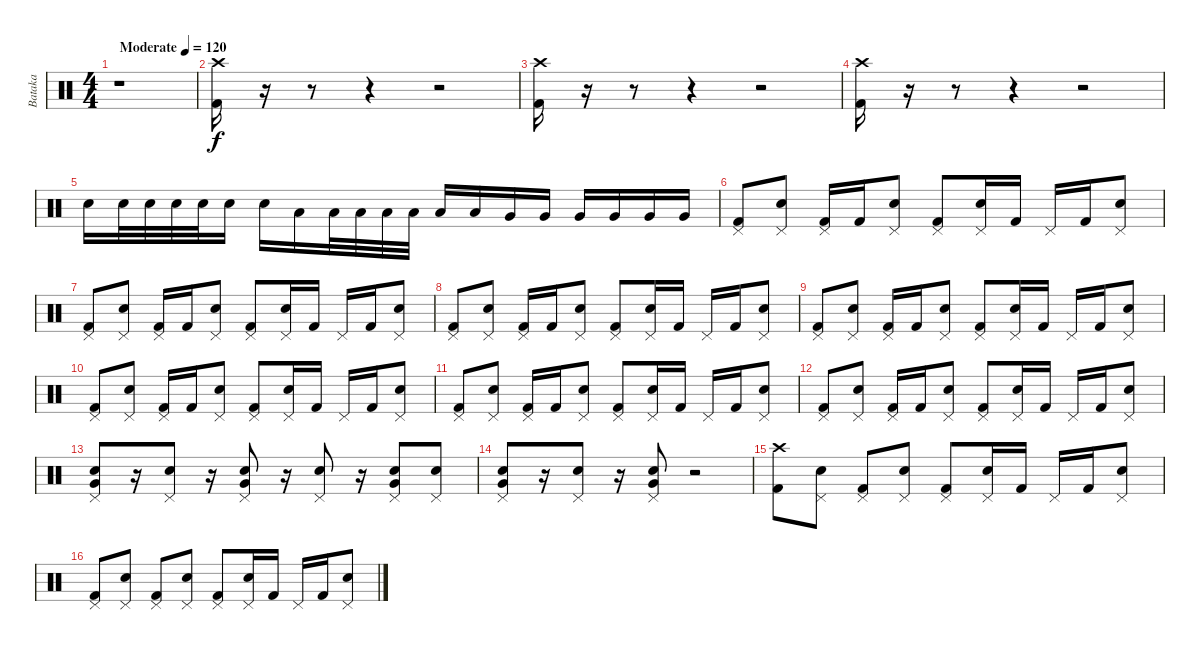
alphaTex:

\track ("Bataka" "Bataka") {instrument percussion}
\staff {score}
\articulation defaults
\ts (4 4)
\tempo (120 "Moderate")
\clef neutral
\ks c
r.1{dy f} |
("Crash high (hit)" "Kick (hit) 2").16 r.16 r.8 r.4 r.2 |
("Crash high (hit)" "Kick (hit) 2").16 r.16 r.8 r.4 r.2 |
("Crash high (hit)" "Kick (hit) 2").16 r.16 r.8 r.4 r.2 |
"Snare (hit) 2".16 "Snare (hit) 2".32 "Snare (hit) 2".32 "Snare (hit) 2".32 "Snare (hit) 2".32 "Snare (hit) 2".16 "Snare (hit) 2".16 "Low Tom (hit)".16 "Low Tom (hit)".32 "Low Tom (hit)".32 "Low Tom (hit)".32 "Low Tom (hit)".32 "Low Tom (hit)".16 "Low Tom (hit)".16 "Very Low Tom (hit)".16 "Very Low Tom (hit)".16 "Very Low Tom (hit)".16 "Very Low Tom (hit)".16 "Very Low Tom (hit)".16 "Very Low Tom (hit)".16 |
("Pedal Hi-Hat (hit)" "Kick (hit) 2").8 ("Pedal Hi-Hat (hit)" "Snare (hit) 2").8 ("Pedal Hi-Hat (hit)" "Kick (hit) 2").16 "Kick (hit) 2".16 ("Pedal Hi-Hat (hit)" "Snare (hit) 2").8 ("Pedal Hi-Hat (hit)" "Kick (hit) 2").8 ("Pedal Hi-Hat (hit)" "Snare (hit) 2").16 "Kick (hit) 2".16 "Pedal Hi-Hat (hit)".16 "Kick (hit) 2".16 ("Pedal Hi-Hat (hit)" "Snare (hit) 2").8 |
("Pedal Hi-Hat (hit)" "Kick (hit) 2").8 ("Pedal Hi-Hat (hit)" "Snare (hit) 2").8 ("Pedal Hi-Hat (hit)" "Kick (hit) 2").16 "Kick (hit) 2".16 ("Pedal Hi-Hat (hit)" "Snare (hit) 2").8 ("Pedal Hi-Hat (hit)" "Kick (hit) 2").8 ("Pedal Hi-Hat (hit)" "Snare (hit) 2").16 "Kick (hit) 2".16 "Pedal Hi-Hat (hit)".16 "Kick (hit) 2".16 ("Pedal Hi-Hat (hit)" "Snare (hit) 2").8 |
("Pedal Hi-Hat (hit)" "Kick (hit) 2").8 ("Pedal Hi-Hat (hit)" "Snare (hit) 2").8 ("Pedal Hi-Hat (hit)" "Kick (hit) 2").16 "Kick (hit) 2".16 ("Pedal Hi-Hat (hit)" "Snare (hit) 2").8 ("Pedal Hi-Hat (hit)" "Kick (hit) 2").8 ("Pedal Hi-Hat (hit)" "Snare (hit) 2").16 "Kick (hit) 2".16 "Pedal Hi-Hat (hit)".16 "Kick (hit) 2".16 ("Pedal Hi-Hat (hit)" "Snare (hit) 2").8 |
("Pedal Hi-Hat (hit)" "Kick (hit) 2").8 ("Pedal Hi-Hat (hit)" "Snare (hit) 2").8 ("Pedal Hi-Hat (hit)" "Kick (hit) 2").16 "Kick (hit) 2".16 ("Pedal Hi-Hat (hit)" "Snare (hit) 2").8 ("Pedal Hi-Hat (hit)" "Kick (hit) 2").8 ("Pedal Hi-Hat (hit)" "Snare (hit) 2").16 "Kick (hit) 2".16 "Pedal Hi-Hat (hit)".16 "Kick (hit) 2".16 ("Pedal Hi-Hat (hit)" "Snare (hit) 2").8 |
("Pedal Hi-Hat (hit)" "Kick (hit) 2").8 ("Pedal Hi-Hat (hit)" "Snare (hit) 2").8 ("Pedal Hi-Hat (hit)" "Kick (hit) 2").16 "Kick (hit) 2".16 ("Pedal Hi-Hat (hit)" "Snare (hit) 2").8 ("Pedal Hi-Hat (hit)" "Kick (hit) 2").8 ("Pedal Hi-Hat (hit)" "Snare (hit) 2").16 "Kick (hit) 2".16 "Pedal Hi-Hat (hit)".16 "Kick (hit) 2".16 ("Pedal Hi-Hat (hit)" "Snare (hit) 2").8 |
("Pedal Hi-Hat (hit)" "Kick (hit) 2").8 ("Pedal Hi-Hat (hit)" "Snare (hit) 2").8 ("Pedal Hi-Hat (hit)" "Kick (hit) 2").16 "Kick (hit) 2".16 ("Pedal Hi-Hat (hit)" "Snare (hit) 2").8 ("Pedal Hi-Hat (hit)" "Kick (hit) 2").8 ("Pedal Hi-Hat (hit)" "Snare (hit) 2").16 "Kick (hit) 2".16 "Pedal Hi-Hat (hit)".16 "Kick (hit) 2".16 ("Pedal Hi-Hat (hit)" "Snare (hit) 2").8 |
("Pedal Hi-Hat (hit)" "Kick (hit) 2").8 ("Pedal Hi-Hat (hit)" "Snare (hit) 2").8 ("Pedal Hi-Hat (hit)" "Kick (hit) 2").16 "Kick (hit) 2".16 ("Pedal Hi-Hat (hit)" "Snare (hit) 2").8 ("Pedal Hi-Hat (hit)" "Kick (hit) 2").8 ("Pedal Hi-Hat (hit)" "Snare (hit) 2").16 "Kick (hit) 2".16 "Pedal Hi-Hat (hit)".16 "Kick (hit) 2".16 ("Pedal Hi-Hat (hit)" "Snare (hit) 2").8 |
("Very Low Tom (hit)" "Snare (hit) 2" "Pedal Hi-Hat (hit)").8 r.16 ("Snare (hit) 2" "Pedal Hi-Hat (hit)").8 r.16 ("Very Low Tom (hit)" "Snare (hit) 2" "Pedal Hi-Hat (hit)").8 r.16 ("Snare (hit) 2" "Pedal Hi-Hat (hit)").8 r.16 ("Very Low Tom (hit)" "Snare (hit) 2" "Pedal Hi-Hat (hit)").8 ("Snare (hit) 2" "Pedal Hi-Hat (hit)").8 |
("Very Low Tom (hit)" "Snare (hit) 2" "Pedal Hi-Hat (hit)").8 r.16 ("Snare (hit) 2" "Pedal Hi-Hat (hit)").8 r.16 ("Very Low Tom (hit)" "Snare (hit) 2" "Pedal Hi-Hat (hit)").8 r.2 |
("Crash high (hit)" "Kick (hit) 2").8 ("Pedal Hi-Hat (hit)" "Snare (hit) 2").8 ("Pedal Hi-Hat (hit)" "Kick (hit) 2").8 ("Pedal Hi-Hat (hit)" "Snare (hit) 2").8 ("Pedal Hi-Hat (hit)" "Kick (hit) 2").8 ("Pedal Hi-Hat (hit)" "Snare (hit) 2").16 "Kick (hit) 2".16 "Pedal Hi-Hat (hit)".16 "Kick (hit) 2".16 ("Pedal Hi-Hat (hit)" "Snare (hit) 2").8 |
("Pedal Hi-Hat (hit)" "Kick (hit) 2").8 ("Pedal Hi-Hat (hit)" "Snare (hit) 2").8 ("Pedal Hi-Hat (hit)" "Kick (hit) 2").8 ("Pedal Hi-Hat (hit)" "Snare (hit) 2").8 ("Pedal Hi-Hat (hit)" "Kick (hit) 2").8 ("Pedal Hi-Hat (hit)" "Snare (hit) 2").16 "Kick (hit) 2".16 "Pedal Hi-Hat (hit)".16 "Kick (hit) 2".16 ("Pedal Hi-Hat (hit)" "Snare (hit) 2").8
